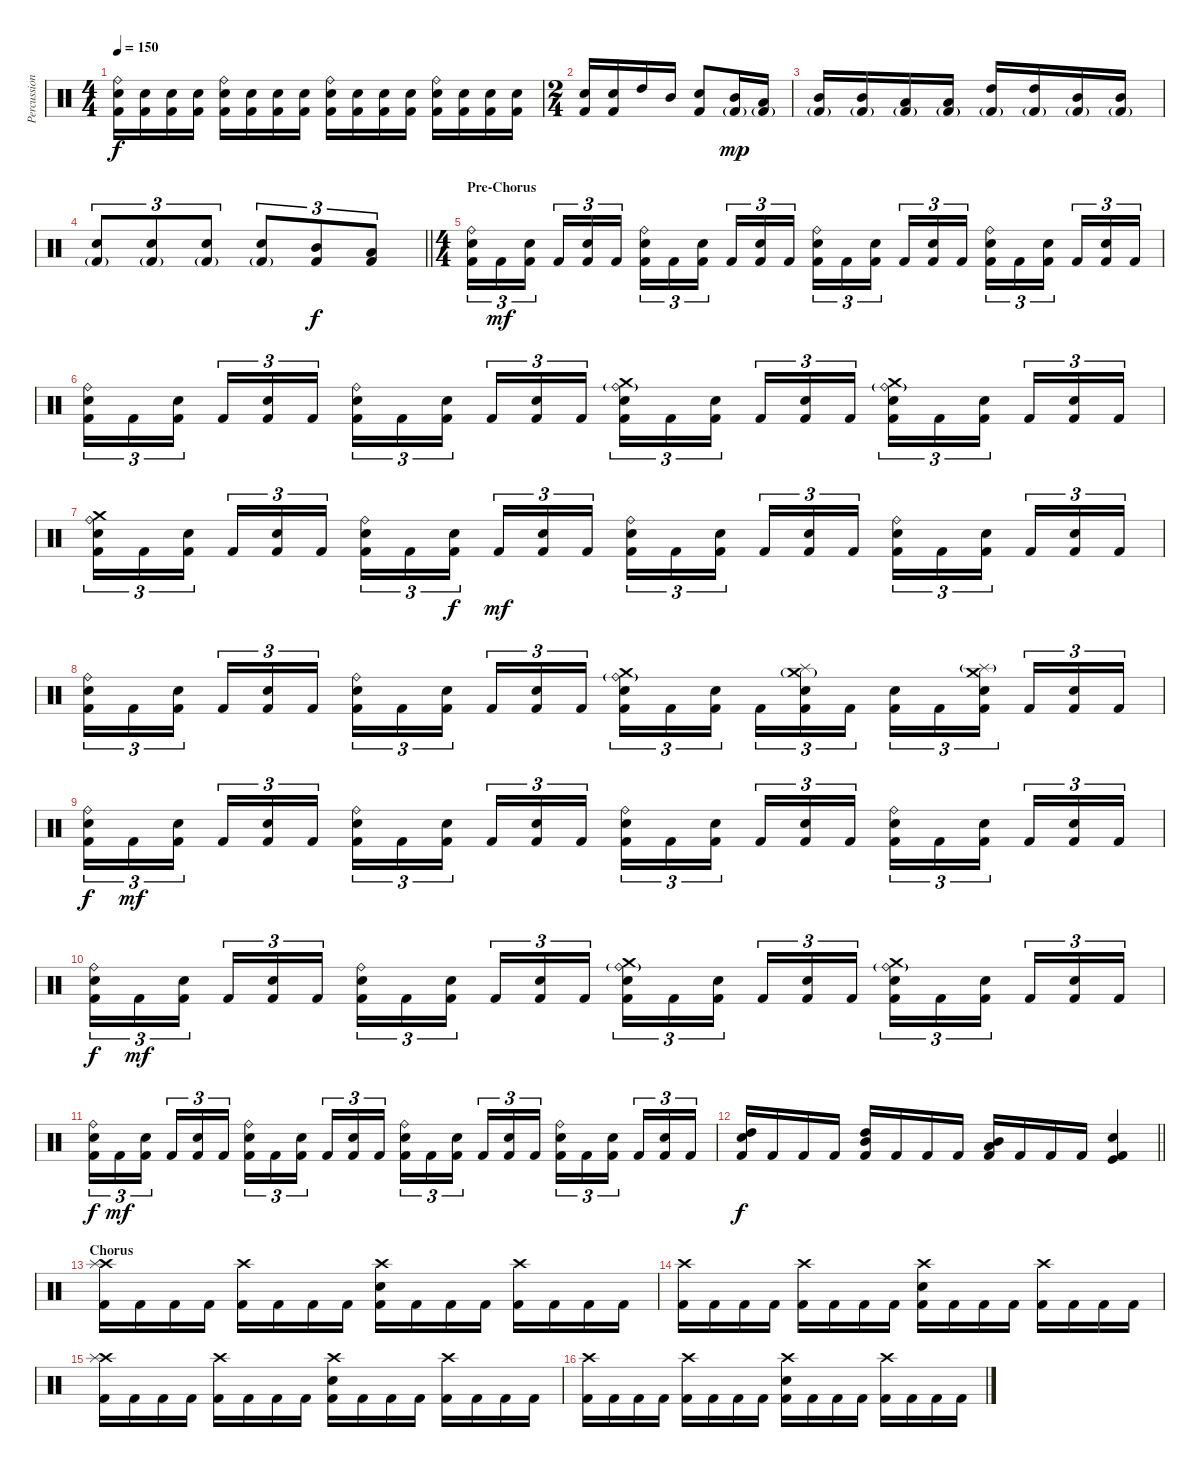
\track ("Percussion" "Percussion") {instrument percussion}
\staff {score}
\articulation defaults
\ts (4 4)
\tempo 150
\clef neutral
\ks c
("Ride (bell)" "Snare (hit) 2" "Kick (hit) 2").16{dy f} ("Snare (hit) 2" "Kick (hit) 2").16 ("Snare (hit) 2" "Kick (hit) 2").16 ("Snare (hit) 2" "Kick (hit) 2").16 ("Ride (bell)" "Snare (hit) 2" "Kick (hit) 2").16 ("Snare (hit) 2" "Kick (hit) 2").16 ("Snare (hit) 2" "Kick (hit) 2").16 ("Snare (hit) 2" "Kick (hit) 2").16 ("Ride (bell)" "Snare (hit) 2" "Kick (hit) 2").16 ("Snare (hit) 2" "Kick (hit) 2").16 ("Snare (hit) 2" "Kick (hit) 2").16 ("Snare (hit) 2" "Kick (hit) 2").16 ("Ride (bell)" "Snare (hit) 2" "Kick (hit) 2").16 ("Snare (hit) 2" "Kick (hit) 2").16 ("Snare (hit) 2" "Kick (hit) 2").16 ("Snare (hit) 2" "Kick (hit) 2").16 |
\ts (2 4)
("Snare (hit) 2" "Kick (hit) 2").16 ("Snare (hit) 2" "Kick (hit) 2").16 "High Tom (hit)".16 "Mid Tom (hit)".16 ("Snare (hit) 2" "Kick (hit) 2").8 ("Mid Tom (hit)" "Kick (hit) 2"{g}).16{dy mp} ("Low Tom (hit)" "Kick (hit) 2"{g}).16 |
("Mid Tom (hit)" "Kick (hit) 2"{g}).16 ("Mid Tom (hit)" "Kick (hit) 2"{g}).16 ("Low Tom (hit)" "Kick (hit) 2"{g}).16 ("Low Tom (hit)" "Kick (hit) 2"{g}).16 ("High Tom (hit)" "Kick (hit) 2"{g}).16 ("High Tom (hit)" "Kick (hit) 2"{g}).16 ("Mid Tom (hit)" "Kick (hit) 2"{g}).16 ("Mid Tom (hit)" "Kick (hit) 2"{g}).16 |
\barLineRight lightlight
("Snare (hit) 2" "Kick (hit) 2"{g}).8{tu (3 2)} ("Snare (hit) 2" "Kick (hit) 2"{g}).8{tu (3 2)} ("Snare (hit) 2" "Kick (hit) 2"{g}).8{tu (3 2)} ("Snare (hit) 2" "Kick (hit) 2"{g}).8{tu (3 2)} ("Mid Tom (hit)" "Kick (hit) 2").8{tu (3 2) dy f} ("Low Tom (hit)" "Kick (hit) 2").8{tu (3 2)} |
\ts (4 4)
\section ("" "Pre-Chorus")
("Ride (bell)" "Snare (hit) 2" "Kick (hit) 2").16{tu (3 2)} "Kick (hit) 2".16{tu (3 2) dy mf} ("Snare (hit) 2" "Kick (hit) 2").16{tu (3 2) beam splitsecondary} "Kick (hit) 2".16{tu (3 2)} ("Snare (hit) 2" "Kick (hit) 2").16{tu (3 2)} "Kick (hit) 2".16{tu (3 2)} ("Ride (bell)" "Snare (hit) 2" "Kick (hit) 2").16{tu (3 2)} "Kick (hit) 2".16{tu (3 2)} ("Snare (hit) 2" "Kick (hit) 2").16{tu (3 2) beam splitsecondary} "Kick (hit) 2".16{tu (3 2)} ("Snare (hit) 2" "Kick (hit) 2").16{tu (3 2)} "Kick (hit) 2".16{tu (3 2)} ("Ride (bell)" "Snare (hit) 2" "Kick (hit) 2").16{tu (3 2)} "Kick (hit) 2".16{tu (3 2)} ("Snare (hit) 2" "Kick (hit) 2").16{tu (3 2) beam splitsecondary} "Kick (hit) 2".16{tu (3 2)} ("Snare (hit) 2" "Kick (hit) 2").16{tu (3 2)} "Kick (hit) 2".16{tu (3 2)} ("Ride (bell)" "Snare (hit) 2" "Kick (hit) 2").16{tu (3 2)} "Kick (hit) 2".16{tu (3 2)} ("Snare (hit) 2" "Kick (hit) 2").16{tu (3 2) beam splitsecondary} "Kick (hit) 2".16{tu (3 2)} ("Snare (hit) 2" "Kick (hit) 2").16{tu (3 2)} "Kick (hit) 2".16{tu (3 2)} |
("Ride (bell)" "Snare (hit) 2" "Kick (hit) 2").16{tu (3 2)} "Kick (hit) 2".16{tu (3 2)} ("Snare (hit) 2" "Kick (hit) 2").16{tu (3 2) beam splitsecondary} "Kick (hit) 2".16{tu (3 2)} ("Snare (hit) 2" "Kick (hit) 2").16{tu (3 2)} "Kick (hit) 2".16{tu (3 2)} ("Ride (bell)" "Snare (hit) 2" "Kick (hit) 2").16{tu (3 2)} "Kick (hit) 2".16{tu (3 2)} ("Snare (hit) 2" "Kick (hit) 2").16{tu (3 2) beam splitsecondary} "Kick (hit) 2".16{tu (3 2)} ("Snare (hit) 2" "Kick (hit) 2").16{tu (3 2)} "Kick (hit) 2".16{tu (3 2)} ("Ride (bell)"{g} "Crash medium (hit)" "Snare (hit) 2" "Kick (hit) 2").16{tu (3 2)} "Kick (hit) 2".16{tu (3 2)} ("Snare (hit) 2" "Kick (hit) 2").16{tu (3 2) beam splitsecondary} "Kick (hit) 2".16{tu (3 2)} ("Snare (hit) 2" "Kick (hit) 2").16{tu (3 2)} "Kick (hit) 2".16{tu (3 2)} ("Ride (bell)"{g} "Crash medium (hit)" "Snare (hit) 2" "Kick (hit) 2").16{tu (3 2)} "Kick (hit) 2".16{tu (3 2)} ("Snare (hit) 2" "Kick (hit) 2").16{tu (3 2) beam splitsecondary} "Kick (hit) 2".16{tu (3 2)} ("Snare (hit) 2" "Kick (hit) 2").16{tu (3 2)} "Kick (hit) 2".16{tu (3 2)} |
("Ride (bell)" "Crash medium (hit)" "Snare (hit) 2" "Kick (hit) 2").16{tu (3 2)} "Kick (hit) 2".16{tu (3 2)} ("Snare (hit) 2" "Kick (hit) 2").16{tu (3 2) beam splitsecondary} "Kick (hit) 2".16{tu (3 2)} ("Snare (hit) 2" "Kick (hit) 2").16{tu (3 2)} "Kick (hit) 2".16{tu (3 2)} ("Ride (bell)" "Snare (hit) 2" "Kick (hit) 2").16{tu (3 2)} "Kick (hit) 2".16{tu (3 2)} ("Snare (hit) 2" "Kick (hit) 2").16{tu (3 2) dy f beam splitsecondary} "Kick (hit) 2".16{tu (3 2) dy mf} ("Snare (hit) 2" "Kick (hit) 2").16{tu (3 2)} "Kick (hit) 2".16{tu (3 2)} ("Ride (bell)" "Snare (hit) 2" "Kick (hit) 2").16{tu (3 2)} "Kick (hit) 2".16{tu (3 2)} ("Snare (hit) 2" "Kick (hit) 2").16{tu (3 2) beam splitsecondary} "Kick (hit) 2".16{tu (3 2)} ("Snare (hit) 2" "Kick (hit) 2").16{tu (3 2)} "Kick (hit) 2".16{tu (3 2)} ("Ride (bell)" "Snare (hit) 2" "Kick (hit) 2").16{tu (3 2)} "Kick (hit) 2".16{tu (3 2)} ("Snare (hit) 2" "Kick (hit) 2").16{tu (3 2) beam splitsecondary} "Kick (hit) 2".16{tu (3 2)} ("Snare (hit) 2" "Kick (hit) 2").16{tu (3 2)} "Kick (hit) 2".16{tu (3 2)} |
("Ride (bell)" "Snare (hit) 2" "Kick (hit) 2").16{tu (3 2)} "Kick (hit) 2".16{tu (3 2)} ("Snare (hit) 2" "Kick (hit) 2").16{tu (3 2) beam splitsecondary} "Kick (hit) 2".16{tu (3 2)} ("Snare (hit) 2" "Kick (hit) 2").16{tu (3 2)} "Kick (hit) 2".16{tu (3 2)} ("Ride (bell)" "Snare (hit) 2" "Kick (hit) 2").16{tu (3 2)} "Kick (hit) 2".16{tu (3 2)} ("Snare (hit) 2" "Kick (hit) 2").16{tu (3 2) beam splitsecondary} "Kick (hit) 2".16{tu (3 2)} ("Snare (hit) 2" "Kick (hit) 2").16{tu (3 2)} "Kick (hit) 2".16{tu (3 2)} ("Ride (bell)"{g} "Crash medium (hit)" "Snare (hit) 2" "Kick (hit) 2").16{tu (3 2)} "Kick (hit) 2".16{tu (3 2)} ("Snare (hit) 2" "Kick (hit) 2").16{tu (3 2) beam splitsecondary} "Kick (hit) 2".16{tu (3 2)} ("Crash medium (hit)"{g} "Splash (hit)" "Snare (hit) 2" "Kick (hit) 2").16{tu (3 2)} "Kick (hit) 2".16{tu (3 2)} ("Snare (hit) 2" "Kick (hit) 2").16{tu (3 2)} "Kick (hit) 2".16{tu (3 2)} ("Splash (hit)"{g} "Crash medium (hit)" "Snare (hit) 2" "Kick (hit) 2").16{tu (3 2) beam splitsecondary} "Kick (hit) 2".16{tu (3 2)} ("Snare (hit) 2" "Kick (hit) 2").16{tu (3 2)} "Kick (hit) 2".16{tu (3 2)} |
("Ride (bell)" "Snare (hit) 2" "Kick (hit) 2").16{tu (3 2) dy f} "Kick (hit) 2".16{tu (3 2) dy mf} ("Snare (hit) 2" "Kick (hit) 2").16{tu (3 2) beam splitsecondary} "Kick (hit) 2".16{tu (3 2)} ("Snare (hit) 2" "Kick (hit) 2").16{tu (3 2)} "Kick (hit) 2".16{tu (3 2)} ("Ride (bell)" "Snare (hit) 2" "Kick (hit) 2").16{tu (3 2)} "Kick (hit) 2".16{tu (3 2)} ("Snare (hit) 2" "Kick (hit) 2").16{tu (3 2) beam splitsecondary} "Kick (hit) 2".16{tu (3 2)} ("Snare (hit) 2" "Kick (hit) 2").16{tu (3 2)} "Kick (hit) 2".16{tu (3 2)} ("Ride (bell)" "Snare (hit) 2" "Kick (hit) 2").16{tu (3 2)} "Kick (hit) 2".16{tu (3 2)} ("Snare (hit) 2" "Kick (hit) 2").16{tu (3 2) beam splitsecondary} "Kick (hit) 2".16{tu (3 2)} ("Snare (hit) 2" "Kick (hit) 2").16{tu (3 2)} "Kick (hit) 2".16{tu (3 2)} ("Ride (bell)" "Snare (hit) 2" "Kick (hit) 2").16{tu (3 2)} "Kick (hit) 2".16{tu (3 2)} ("Snare (hit) 2" "Kick (hit) 2").16{tu (3 2) beam splitsecondary} "Kick (hit) 2".16{tu (3 2)} ("Snare (hit) 2" "Kick (hit) 2").16{tu (3 2)} "Kick (hit) 2".16{tu (3 2)} |
("Ride (bell)" "Snare (hit) 2" "Kick (hit) 2").16{tu (3 2) dy f} "Kick (hit) 2".16{tu (3 2) dy mf} ("Snare (hit) 2" "Kick (hit) 2").16{tu (3 2) beam splitsecondary} "Kick (hit) 2".16{tu (3 2)} ("Snare (hit) 2" "Kick (hit) 2").16{tu (3 2)} "Kick (hit) 2".16{tu (3 2)} ("Ride (bell)" "Snare (hit) 2" "Kick (hit) 2").16{tu (3 2)} "Kick (hit) 2".16{tu (3 2)} ("Snare (hit) 2" "Kick (hit) 2").16{tu (3 2) beam splitsecondary} "Kick (hit) 2".16{tu (3 2)} ("Snare (hit) 2" "Kick (hit) 2").16{tu (3 2)} "Kick (hit) 2".16{tu (3 2)} ("Ride (bell)"{g} "Crash medium (hit)" "Snare (hit) 2" "Kick (hit) 2").16{tu (3 2)} "Kick (hit) 2".16{tu (3 2)} ("Snare (hit) 2" "Kick (hit) 2").16{tu (3 2) beam splitsecondary} "Kick (hit) 2".16{tu (3 2)} ("Snare (hit) 2" "Kick (hit) 2").16{tu (3 2)} "Kick (hit) 2".16{tu (3 2)} ("Ride (bell)"{g} "Crash medium (hit)" "Snare (hit) 2" "Kick (hit) 2").16{tu (3 2)} "Kick (hit) 2".16{tu (3 2)} ("Snare (hit) 2" "Kick (hit) 2").16{tu (3 2) beam splitsecondary} "Kick (hit) 2".16{tu (3 2)} ("Snare (hit) 2" "Kick (hit) 2").16{tu (3 2)} "Kick (hit) 2".16{tu (3 2)} |
("Ride (bell)" "Snare (hit) 2" "Kick (hit) 2").16{tu (3 2) dy f} "Kick (hit) 2".16{tu (3 2) dy mf} ("Snare (hit) 2" "Kick (hit) 2").16{tu (3 2) beam splitsecondary} "Kick (hit) 2".16{tu (3 2)} ("Snare (hit) 2" "Kick (hit) 2").16{tu (3 2)} "Kick (hit) 2".16{tu (3 2)} ("Ride (bell)" "Snare (hit) 2" "Kick (hit) 2").16{tu (3 2)} "Kick (hit) 2".16{tu (3 2)} ("Snare (hit) 2" "Kick (hit) 2").16{tu (3 2) beam splitsecondary} "Kick (hit) 2".16{tu (3 2)} ("Snare (hit) 2" "Kick (hit) 2").16{tu (3 2)} "Kick (hit) 2".16{tu (3 2)} ("Ride (bell)" "Snare (hit) 2" "Kick (hit) 2").16{tu (3 2)} "Kick (hit) 2".16{tu (3 2)} ("Snare (hit) 2" "Kick (hit) 2").16{tu (3 2) beam splitsecondary} "Kick (hit) 2".16{tu (3 2)} ("Snare (hit) 2" "Kick (hit) 2").16{tu (3 2)} "Kick (hit) 2".16{tu (3 2)} ("Ride (bell)" "Snare (hit) 2" "Kick (hit) 2").16{tu (3 2)} "Kick (hit) 2".16{tu (3 2)} ("Snare (hit) 2" "Kick (hit) 2").16{tu (3 2) beam splitsecondary} "Kick (hit) 2".16{tu (3 2)} ("Snare (hit) 2" "Kick (hit) 2").16{tu (3 2)} "Kick (hit) 2".16{tu (3 2)} |
\barLineRight lightlight
("High Tom (hit)" "Snare (hit) 2" "Kick (hit) 2").16{dy f} "Kick (hit) 2".16 "Kick (hit) 2".16 "Kick (hit) 2".16 ("High Tom (hit)" "Mid Tom (hit)" "Kick (hit) 2").16 "Kick (hit) 2".16 "Kick (hit) 2".16 "Kick (hit) 2".16 ("Mid Tom (hit)" "Low Tom (hit)" "Kick (hit) 2").16 "Kick (hit) 2".16 "Kick (hit) 2".16 "Kick (hit) 2".16 ("Kick (hit)" "Snare (hit) 2" "Kick (hit) 2").4 |
\section ("" "Chorus")
("Crash high (hit)" "Splash (hit)" "Kick (hit) 2").16 "Kick (hit) 2".16 "Kick (hit) 2".16 "Kick (hit) 2".16 ("Crash high (hit)" "Kick (hit) 2").16 "Kick (hit) 2".16 "Kick (hit) 2".16 "Kick (hit) 2".16 ("Crash high (hit)" "Snare (hit) 2" "Kick (hit) 2").16 "Kick (hit) 2".16 "Kick (hit) 2".16 "Kick (hit) 2".16 ("Crash high (hit)" "Kick (hit) 2").16 "Kick (hit) 2".16 "Kick (hit) 2".16 "Kick (hit) 2".16 |
("Crash high (hit)" "Kick (hit) 2").16 "Kick (hit) 2".16 "Kick (hit) 2".16 "Kick (hit) 2".16 ("Crash high (hit)" "Kick (hit) 2").16 "Kick (hit) 2".16 "Kick (hit) 2".16 "Kick (hit) 2".16 ("Crash high (hit)" "Snare (hit) 2" "Kick (hit) 2").16 "Kick (hit) 2".16 "Kick (hit) 2".16 "Kick (hit) 2".16 ("Crash high (hit)" "Kick (hit) 2").16 "Kick (hit) 2".16 "Kick (hit) 2".16 "Kick (hit) 2".16 |
("Crash high (hit)" "Splash (hit)" "Kick (hit) 2").16 "Kick (hit) 2".16 "Kick (hit) 2".16 "Kick (hit) 2".16 ("Crash high (hit)" "Kick (hit) 2").16 "Kick (hit) 2".16 "Kick (hit) 2".16 "Kick (hit) 2".16 ("Crash high (hit)" "Snare (hit) 2" "Kick (hit) 2").16 "Kick (hit) 2".16 "Kick (hit) 2".16 "Kick (hit) 2".16 ("Crash high (hit)" "Kick (hit) 2").16 "Kick (hit) 2".16 "Kick (hit) 2".16 "Kick (hit) 2".16 |
("Crash high (hit)" "Kick (hit) 2").16 "Kick (hit) 2".16 "Kick (hit) 2".16 "Kick (hit) 2".16 ("Crash high (hit)" "Kick (hit) 2").16 "Kick (hit) 2".16 "Kick (hit) 2".16 "Kick (hit) 2".16 ("Crash high (hit)" "Snare (hit) 2" "Kick (hit) 2").16 "Kick (hit) 2".16 "Kick (hit) 2".16 "Kick (hit) 2".16 ("Crash high (hit)" "Kick (hit) 2").16 "Kick (hit) 2".16 "Kick (hit) 2".16 "Kick (hit) 2".16
